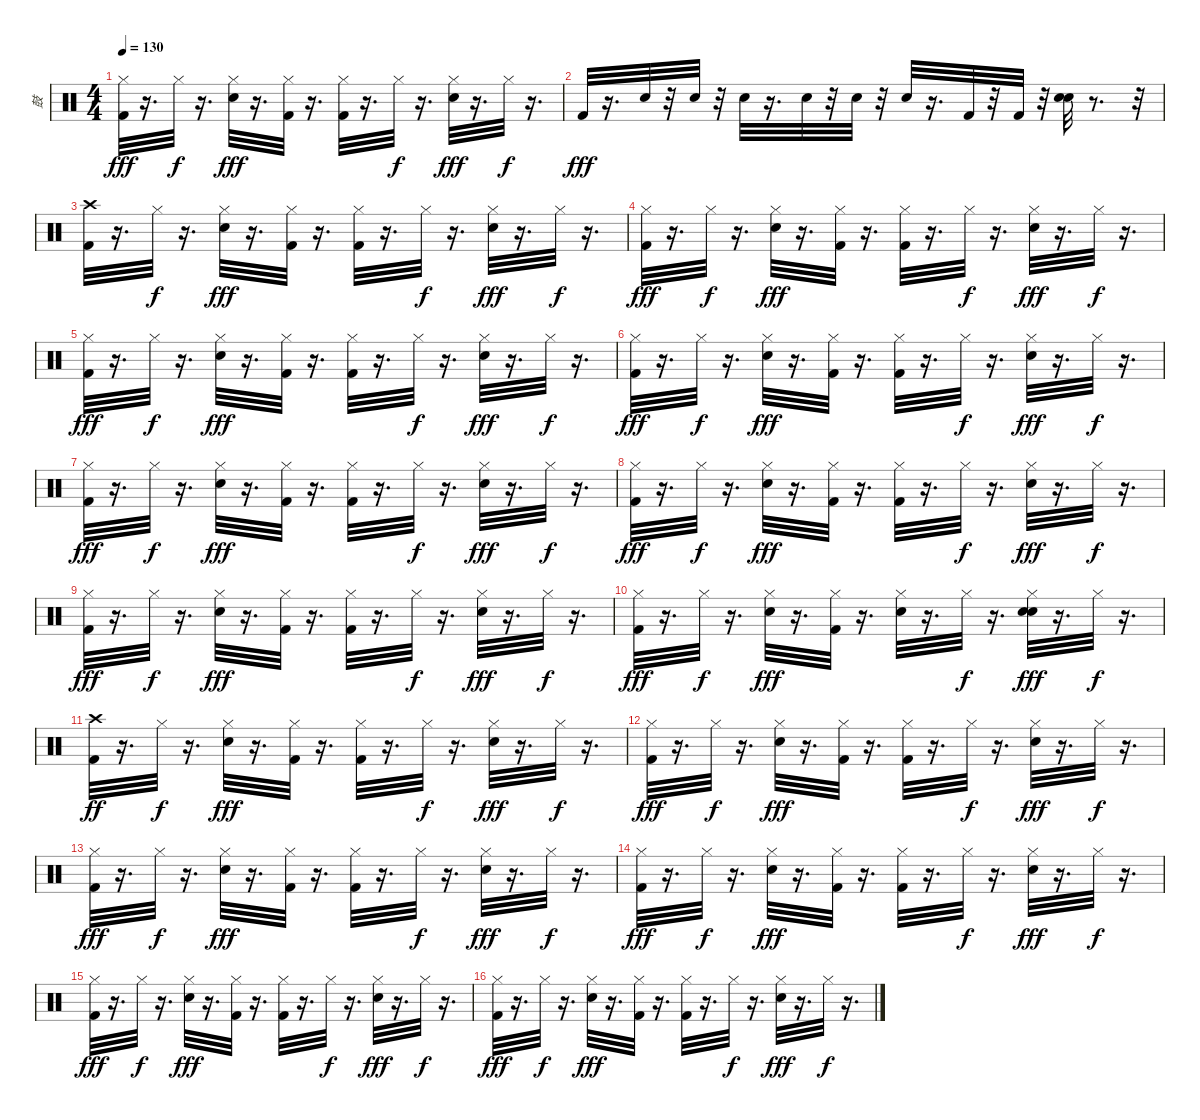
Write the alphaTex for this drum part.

\track ("鼓" "鼓") {instrument percussion}
\staff {score}
\articulation defaults
\ts (4 4)
\tempo 130
\clef neutral
\ks c
("Hi-Hat (closed)" "Kick (hit) 2").32{dy fff} r.16{d} "Hi-Hat (closed)".32{dy f} r.16{d} ("Hi-Hat (closed)" "Electric Snare (hit)").32{dy fff} r.16{d} ("Kick (hit) 2" "Hi-Hat (closed)").32 r.16{d} ("Kick (hit) 2" "Hi-Hat (closed)").32 r.16{d} "Hi-Hat (closed)".32{dy f} r.16{d} ("Hi-Hat (closed)" "Electric Snare (hit)").32{dy fff} r.16{d} "Hi-Hat (closed)".32{dy f} r.16{d} |
"Kick (hit) 2".32{dy fff} r.16{d} "Snare (hit) 2".32 r.32 "Electric Snare (hit)".32 r.32 "Snare (hit) 2".32 r.16{d} "Snare (hit) 2".32 r.32 "Electric Snare (hit)".32 r.32 "Snare (hit) 2".32 r.16{d} "Kick (hit) 2".32 r.32 "Kick (hit) 2".32 r.32 ("Snare (hit) 2" "Snare (hit) 2").32 r.8{d} r.32 |
("Crash high (hit)" "Kick (hit) 2").32 r.16{d} "Hi-Hat (closed)".32{dy f} r.16{d} ("Hi-Hat (closed)" "Electric Snare (hit)").32{dy fff} r.16{d} ("Kick (hit) 2" "Hi-Hat (closed)").32 r.16{d} ("Kick (hit) 2" "Hi-Hat (closed)").32 r.16{d} "Hi-Hat (closed)".32{dy f} r.16{d} ("Hi-Hat (closed)" "Electric Snare (hit)").32{dy fff} r.16{d} "Hi-Hat (closed)".32{dy f} r.16{d} |
("Kick (hit) 2" "Hi-Hat (closed)").32{dy fff} r.16{d} "Hi-Hat (closed)".32{dy f} r.16{d} ("Hi-Hat (closed)" "Electric Snare (hit)").32{dy fff} r.16{d} ("Kick (hit) 2" "Hi-Hat (closed)").32 r.16{d} ("Kick (hit) 2" "Hi-Hat (closed)").32 r.16{d} "Hi-Hat (closed)".32{dy f} r.16{d} ("Hi-Hat (closed)" "Electric Snare (hit)").32{dy fff} r.16{d} "Hi-Hat (closed)".32{dy f} r.16{d} |
("Kick (hit) 2" "Hi-Hat (closed)").32{dy fff} r.16{d} "Hi-Hat (closed)".32{dy f} r.16{d} ("Hi-Hat (closed)" "Electric Snare (hit)").32{dy fff} r.16{d} ("Kick (hit) 2" "Hi-Hat (closed)").32 r.16{d} ("Kick (hit) 2" "Hi-Hat (closed)").32 r.16{d} "Hi-Hat (closed)".32{dy f} r.16{d} ("Hi-Hat (closed)" "Electric Snare (hit)").32{dy fff} r.16{d} "Hi-Hat (closed)".32{dy f} r.16{d} |
("Kick (hit) 2" "Hi-Hat (closed)").32{dy fff} r.16{d} "Hi-Hat (closed)".32{dy f} r.16{d} ("Hi-Hat (closed)" "Electric Snare (hit)").32{dy fff} r.16{d} ("Kick (hit) 2" "Hi-Hat (closed)").32 r.16{d} ("Kick (hit) 2" "Hi-Hat (closed)").32 r.16{d} "Hi-Hat (closed)".32{dy f} r.16{d} ("Hi-Hat (closed)" "Electric Snare (hit)").32{dy fff} r.16{d} "Hi-Hat (closed)".32{dy f} r.16{d} |
("Kick (hit) 2" "Hi-Hat (closed)").32{dy fff} r.16{d} "Hi-Hat (closed)".32{dy f} r.16{d} ("Hi-Hat (closed)" "Electric Snare (hit)").32{dy fff} r.16{d} ("Kick (hit) 2" "Hi-Hat (closed)").32 r.16{d} ("Kick (hit) 2" "Hi-Hat (closed)").32 r.16{d} "Hi-Hat (closed)".32{dy f} r.16{d} ("Hi-Hat (closed)" "Electric Snare (hit)").32{dy fff} r.16{d} "Hi-Hat (closed)".32{dy f} r.16{d} |
("Kick (hit) 2" "Hi-Hat (closed)").32{dy fff} r.16{d} "Hi-Hat (closed)".32{dy f} r.16{d} ("Hi-Hat (closed)" "Electric Snare (hit)").32{dy fff} r.16{d} ("Kick (hit) 2" "Hi-Hat (closed)").32 r.16{d} ("Kick (hit) 2" "Hi-Hat (closed)").32 r.16{d} "Hi-Hat (closed)".32{dy f} r.16{d} ("Hi-Hat (closed)" "Electric Snare (hit)").32{dy fff} r.16{d} "Hi-Hat (closed)".32{dy f} r.16{d} |
("Kick (hit) 2" "Hi-Hat (closed)").32{dy fff} r.16{d} "Hi-Hat (closed)".32{dy f} r.16{d} ("Hi-Hat (closed)" "Electric Snare (hit)").32{dy fff} r.16{d} ("Kick (hit) 2" "Hi-Hat (closed)").32 r.16{d} ("Kick (hit) 2" "Hi-Hat (closed)").32 r.16{d} "Hi-Hat (closed)".32{dy f} r.16{d} ("Hi-Hat (closed)" "Electric Snare (hit)").32{dy fff} r.16{d} "Hi-Hat (closed)".32{dy f} r.16{d} |
("Kick (hit) 2" "Hi-Hat (closed)").32{dy fff} r.16{d} "Hi-Hat (closed)".32{dy f} r.16{d} ("Hi-Hat (closed)" "Electric Snare (hit)").32{dy fff} r.16{d} ("Kick (hit) 2" "Hi-Hat (closed)").32 r.16{d} ("Electric Snare (hit)" "Hi-Hat (closed)").32 r.16{d} "Hi-Hat (closed)".32{dy f} r.16{d} ("Electric Snare (hit)" "Hi-Hat (closed)" "Electric Snare (hit)").32{dy fff} r.16{d} "Hi-Hat (closed)".32{dy f} r.16{d} |
("Kick (hit) 2" "Crash high (hit)").32{dy ff} r.16{d} "Hi-Hat (closed)".32{dy f} r.16{d} ("Hi-Hat (closed)" "Electric Snare (hit)").32{dy fff} r.16{d} ("Kick (hit) 2" "Hi-Hat (closed)").32 r.16{d} ("Kick (hit) 2" "Hi-Hat (closed)").32 r.16{d} "Hi-Hat (closed)".32{dy f} r.16{d} ("Hi-Hat (closed)" "Electric Snare (hit)").32{dy fff} r.16{d} "Hi-Hat (closed)".32{dy f} r.16{d} |
("Kick (hit) 2" "Hi-Hat (closed)").32{dy fff} r.16{d} "Hi-Hat (closed)".32{dy f} r.16{d} ("Hi-Hat (closed)" "Electric Snare (hit)").32{dy fff} r.16{d} ("Kick (hit) 2" "Hi-Hat (closed)").32 r.16{d} ("Kick (hit) 2" "Hi-Hat (closed)").32 r.16{d} "Hi-Hat (closed)".32{dy f} r.16{d} ("Hi-Hat (closed)" "Electric Snare (hit)").32{dy fff} r.16{d} "Hi-Hat (closed)".32{dy f} r.16{d} |
("Kick (hit) 2" "Hi-Hat (closed)").32{dy fff} r.16{d} "Hi-Hat (closed)".32{dy f} r.16{d} ("Hi-Hat (closed)" "Electric Snare (hit)").32{dy fff} r.16{d} ("Kick (hit) 2" "Hi-Hat (closed)").32 r.16{d} ("Kick (hit) 2" "Hi-Hat (closed)").32 r.16{d} "Hi-Hat (closed)".32{dy f} r.16{d} ("Hi-Hat (closed)" "Electric Snare (hit)").32{dy fff} r.16{d} "Hi-Hat (closed)".32{dy f} r.16{d} |
("Kick (hit) 2" "Hi-Hat (closed)").32{dy fff} r.16{d} "Hi-Hat (closed)".32{dy f} r.16{d} ("Hi-Hat (closed)" "Electric Snare (hit)").32{dy fff} r.16{d} ("Kick (hit) 2" "Hi-Hat (closed)").32 r.16{d} ("Kick (hit) 2" "Hi-Hat (closed)").32 r.16{d} "Hi-Hat (closed)".32{dy f} r.16{d} ("Hi-Hat (closed)" "Electric Snare (hit)").32{dy fff} r.16{d} "Hi-Hat (closed)".32{dy f} r.16{d} |
("Kick (hit) 2" "Hi-Hat (closed)").32{dy fff} r.16{d} "Hi-Hat (closed)".32{dy f} r.16{d} ("Hi-Hat (closed)" "Electric Snare (hit)").32{dy fff} r.16{d} ("Kick (hit) 2" "Hi-Hat (closed)").32 r.16{d} ("Kick (hit) 2" "Hi-Hat (closed)").32 r.16{d} "Hi-Hat (closed)".32{dy f} r.16{d} ("Hi-Hat (closed)" "Electric Snare (hit)").32{dy fff} r.16{d} "Hi-Hat (closed)".32{dy f} r.16{d} |
("Kick (hit) 2" "Hi-Hat (closed)").32{dy fff} r.16{d} "Hi-Hat (closed)".32{dy f} r.16{d} ("Hi-Hat (closed)" "Electric Snare (hit)").32{dy fff} r.16{d} ("Kick (hit) 2" "Hi-Hat (closed)").32 r.16{d} ("Kick (hit) 2" "Hi-Hat (closed)").32 r.16{d} "Hi-Hat (closed)".32{dy f} r.16{d} ("Hi-Hat (closed)" "Electric Snare (hit)").32{dy fff} r.16{d} "Hi-Hat (closed)".32{dy f} r.16{d}
